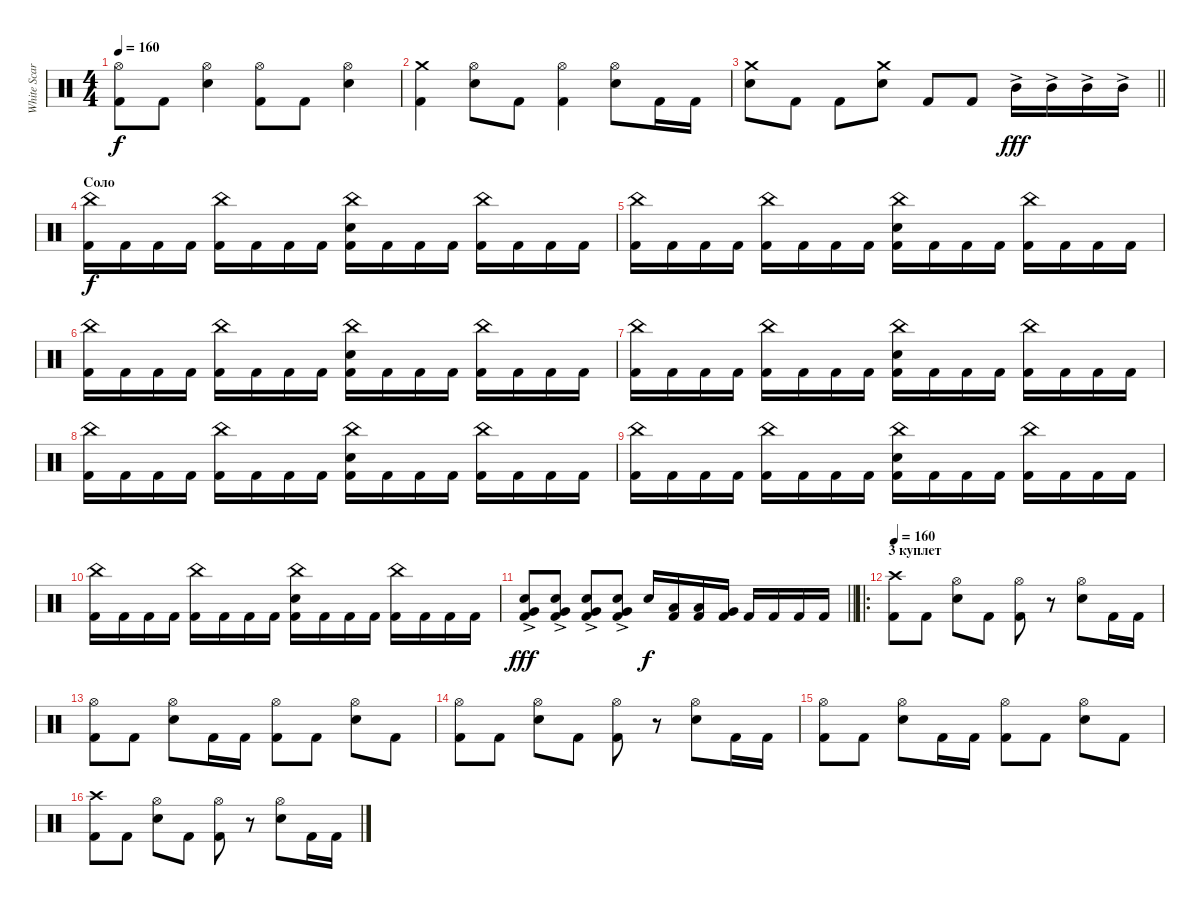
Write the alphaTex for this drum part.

\track ("White Scar" "White Scar") {instrument percussion}
\staff {score}
\articulation defaults
\ts (4 4)
\tempo 160
\clef neutral
\ks c
("Hi-Hat (open)" "Kick (hit) 2").8{dy f} "Kick (hit) 2".8 ("Hi-Hat (open)" "Snare (hit) 2").4 ("Hi-Hat (open)" "Kick (hit) 2").8 "Kick (hit) 2".8 ("Hi-Hat (open)" "Snare (hit) 2").4 |
("Crash medium (hit)" "Kick (hit) 2").4 ("Hi-Hat (open)" "Snare (hit) 2").8 "Kick (hit) 2".8 ("Hi-Hat (open)" "Kick (hit) 2").4 ("Hi-Hat (open)" "Snare (hit) 2").8 "Kick (hit) 2".16 "Kick (hit) 2".16 |
\barLineRight lightlight
("Crash medium (hit)" "Snare (hit) 2").8 "Kick (hit) 2".8 "Kick (hit) 2".8 ("Crash medium (hit)" "Snare (hit) 2").8 "Kick (hit) 2".8 "Kick (hit) 2".8 "Mid Tom (hit)"{ac}.16{dy fff} "Mid Tom (hit)"{ac}.16 "Mid Tom (hit)"{ac}.16 "Mid Tom (hit)"{ac}.16 |
\section ("" "Соло")
("China (hit)" "Kick (hit) 2").16{dy f} "Kick (hit) 2".16 "Kick (hit) 2".16 "Kick (hit) 2".16 ("China (hit)" "Kick (hit) 2").16 "Kick (hit) 2".16 "Kick (hit) 2".16 "Kick (hit) 2".16 ("China (hit)" "Snare (hit) 2" "Kick (hit) 2").16 "Kick (hit) 2".16 "Kick (hit) 2".16 "Kick (hit) 2".16 ("China (hit)" "Kick (hit) 2").16 "Kick (hit) 2".16 "Kick (hit) 2".16 "Kick (hit) 2".16 |
("China (hit)" "Kick (hit) 2").16 "Kick (hit) 2".16 "Kick (hit) 2".16 "Kick (hit) 2".16 ("China (hit)" "Kick (hit) 2").16 "Kick (hit) 2".16 "Kick (hit) 2".16 "Kick (hit) 2".16 ("China (hit)" "Snare (hit) 2" "Kick (hit) 2").16 "Kick (hit) 2".16 "Kick (hit) 2".16 "Kick (hit) 2".16 ("China (hit)" "Kick (hit) 2").16 "Kick (hit) 2".16 "Kick (hit) 2".16 "Kick (hit) 2".16 |
("China (hit)" "Kick (hit) 2").16 "Kick (hit) 2".16 "Kick (hit) 2".16 "Kick (hit) 2".16 ("China (hit)" "Kick (hit) 2").16 "Kick (hit) 2".16 "Kick (hit) 2".16 "Kick (hit) 2".16 ("China (hit)" "Snare (hit) 2" "Kick (hit) 2").16 "Kick (hit) 2".16 "Kick (hit) 2".16 "Kick (hit) 2".16 ("China (hit)" "Kick (hit) 2").16 "Kick (hit) 2".16 "Kick (hit) 2".16 "Kick (hit) 2".16 |
("China (hit)" "Kick (hit) 2").16 "Kick (hit) 2".16 "Kick (hit) 2".16 "Kick (hit) 2".16 ("China (hit)" "Kick (hit) 2").16 "Kick (hit) 2".16 "Kick (hit) 2".16 "Kick (hit) 2".16 ("China (hit)" "Snare (hit) 2" "Kick (hit) 2").16 "Kick (hit) 2".16 "Kick (hit) 2".16 "Kick (hit) 2".16 ("China (hit)" "Kick (hit) 2").16 "Kick (hit) 2".16 "Kick (hit) 2".16 "Kick (hit) 2".16 |
("China (hit)" "Kick (hit) 2").16 "Kick (hit) 2".16 "Kick (hit) 2".16 "Kick (hit) 2".16 ("China (hit)" "Kick (hit) 2").16 "Kick (hit) 2".16 "Kick (hit) 2".16 "Kick (hit) 2".16 ("China (hit)" "Snare (hit) 2" "Kick (hit) 2").16 "Kick (hit) 2".16 "Kick (hit) 2".16 "Kick (hit) 2".16 ("China (hit)" "Kick (hit) 2").16 "Kick (hit) 2".16 "Kick (hit) 2".16 "Kick (hit) 2".16 |
("China (hit)" "Kick (hit) 2").16 "Kick (hit) 2".16 "Kick (hit) 2".16 "Kick (hit) 2".16 ("China (hit)" "Kick (hit) 2").16 "Kick (hit) 2".16 "Kick (hit) 2".16 "Kick (hit) 2".16 ("China (hit)" "Snare (hit) 2" "Kick (hit) 2").16 "Kick (hit) 2".16 "Kick (hit) 2".16 "Kick (hit) 2".16 ("China (hit)" "Kick (hit) 2").16 "Kick (hit) 2".16 "Kick (hit) 2".16 "Kick (hit) 2".16 |
("China (hit)" "Kick (hit) 2").16 "Kick (hit) 2".16 "Kick (hit) 2".16 "Kick (hit) 2".16 ("China (hit)" "Kick (hit) 2").16 "Kick (hit) 2".16 "Kick (hit) 2".16 "Kick (hit) 2".16 ("China (hit)" "Snare (hit) 2" "Kick (hit) 2").16 "Kick (hit) 2".16 "Kick (hit) 2".16 "Kick (hit) 2".16 ("China (hit)" "Kick (hit) 2").16 "Kick (hit) 2".16 "Kick (hit) 2".16 "Kick (hit) 2".16 |
\barLineRight lightlight
("Very Low Tom (hit)"{ac} "Snare (hit) 2" "Kick (hit) 2").8{dy fff} ("Very Low Tom (hit)"{ac} "Snare (hit) 2" "Kick (hit) 2").8 ("Very Low Tom (hit)"{ac} "Snare (hit) 2" "Kick (hit) 2").8 ("Very Low Tom (hit)"{ac} "Snare (hit) 2" "Kick (hit) 2").8 "Snare (hit) 2".16{dy f} ("Low Tom (hit)" "Kick (hit) 2").16 ("Low Tom (hit)" "Kick (hit) 2").16 ("Very Low Tom (hit)" "Kick (hit) 2").16 "Kick (hit) 2".16 "Kick (hit) 2".16 "Kick (hit) 2".16 "Kick (hit) 2".16 |
\ro
\section ("" "3 куплет")
\tempo 160
("Crash high (hit)" "Kick (hit) 2").8 "Kick (hit) 2".8 ("Hi-Hat (open)" "Snare (hit) 2").8 "Kick (hit) 2".8 ("Hi-Hat (open)" "Kick (hit) 2").8 r.8 ("Hi-Hat (open)" "Snare (hit) 2").8 "Kick (hit) 2".16 "Kick (hit) 2".16 |
("Hi-Hat (open)" "Kick (hit) 2").8 "Kick (hit) 2".8 ("Hi-Hat (open)" "Snare (hit) 2").8 "Kick (hit) 2".16 "Kick (hit) 2".16 ("Hi-Hat (open)" "Kick (hit) 2").8 "Kick (hit) 2".8 ("Hi-Hat (open)" "Snare (hit) 2").8 "Kick (hit) 2".8 |
("Hi-Hat (open)" "Kick (hit) 2").8 "Kick (hit) 2".8 ("Hi-Hat (open)" "Snare (hit) 2").8 "Kick (hit) 2".8 ("Hi-Hat (open)" "Kick (hit) 2").8 r.8 ("Hi-Hat (open)" "Snare (hit) 2").8 "Kick (hit) 2".16 "Kick (hit) 2".16 |
("Hi-Hat (open)" "Kick (hit) 2").8 "Kick (hit) 2".8 ("Hi-Hat (open)" "Snare (hit) 2").8 "Kick (hit) 2".16 "Kick (hit) 2".16 ("Hi-Hat (open)" "Kick (hit) 2").8 "Kick (hit) 2".8 ("Hi-Hat (open)" "Snare (hit) 2").8 "Kick (hit) 2".8 |
("Crash high (hit)" "Kick (hit) 2").8 "Kick (hit) 2".8 ("Hi-Hat (open)" "Snare (hit) 2").8 "Kick (hit) 2".8 ("Hi-Hat (open)" "Kick (hit) 2").8 r.8 ("Hi-Hat (open)" "Snare (hit) 2").8 "Kick (hit) 2".16 "Kick (hit) 2".16
